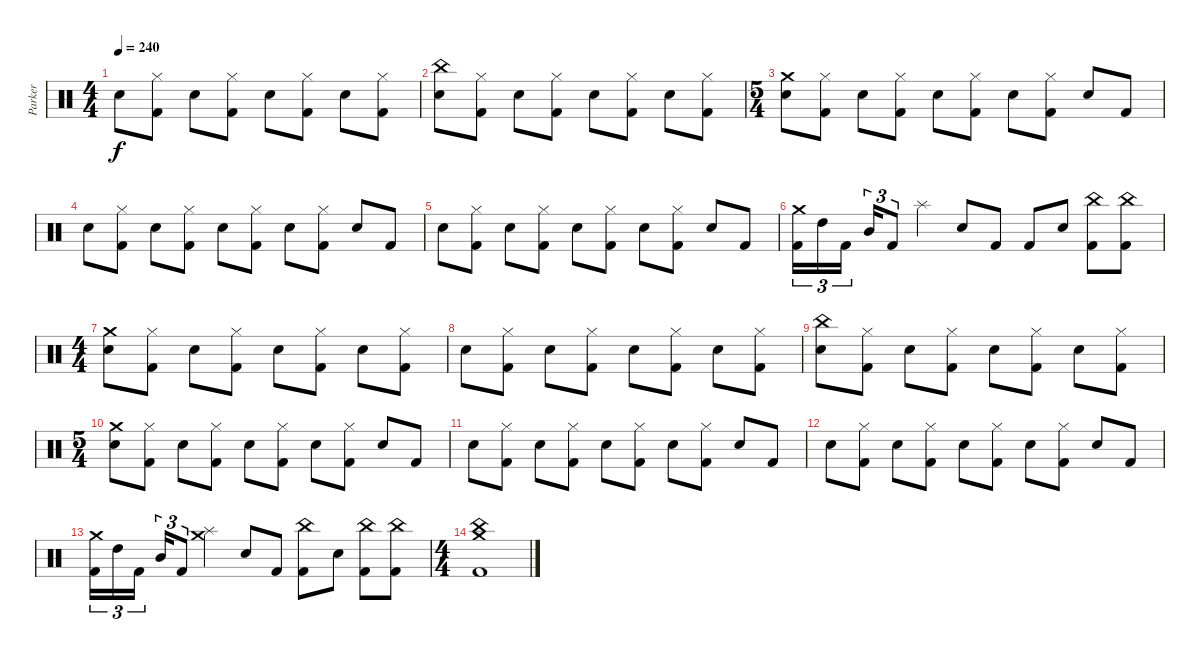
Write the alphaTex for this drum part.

\track ("Parker" "Parker") {instrument percussion}
\staff {score}
\articulation defaults
\ts (4 4)
\tempo 240
\clef neutral
\ks c "Electric Snare (hit)".8{dy f}
("Hi-Hat (closed)" "Kick (hit) 2").8 "Electric Snare (hit)".8 ("Hi-Hat (closed)" "Kick (hit) 2").8 "Electric Snare (hit)".8 ("Hi-Hat (closed)" "Kick (hit) 2").8 "Electric Snare (hit)".8 ("Hi-Hat (closed)" "Kick (hit) 2").8 |
("China (hit)" "Electric Snare (hit)").8 ("Hi-Hat (closed)" "Kick (hit) 2").8 "Electric Snare (hit)".8 ("Hi-Hat (closed)" "Kick (hit) 2").8 "Electric Snare (hit)".8 ("Hi-Hat (closed)" "Kick (hit) 2").8 "Electric Snare (hit)".8 ("Hi-Hat (closed)" "Kick (hit) 2").8 |
\ts (5 4)
("Crash medium (hit)" "Electric Snare (hit)").8 ("Hi-Hat (closed)" "Kick (hit) 2").8 "Electric Snare (hit)".8 ("Hi-Hat (closed)" "Kick (hit) 2").8 "Electric Snare (hit)".8 ("Hi-Hat (closed)" "Kick (hit) 2").8 "Electric Snare (hit)".8 ("Hi-Hat (closed)" "Kick (hit) 2").8 "Electric Snare (hit)".8 "Kick (hit) 2".8 |
"Electric Snare (hit)".8 ("Hi-Hat (closed)" "Kick (hit) 2").8 "Electric Snare (hit)".8 ("Hi-Hat (closed)" "Kick (hit) 2").8 "Electric Snare (hit)".8 ("Hi-Hat (closed)" "Kick (hit) 2").8 "Electric Snare (hit)".8 ("Hi-Hat (closed)" "Kick (hit) 2").8 "Electric Snare (hit)".8 "Kick (hit) 2".8 |
"Electric Snare (hit)".8 ("Hi-Hat (closed)" "Kick (hit) 2").8 "Electric Snare (hit)".8 ("Hi-Hat (closed)" "Kick (hit) 2").8 "Electric Snare (hit)".8 ("Hi-Hat (closed)" "Kick (hit) 2").8 "Electric Snare (hit)".8 ("Hi-Hat (closed)" "Kick (hit) 2").8 "Electric Snare (hit)".8 "Kick (hit) 2".8 |
("Crash medium (hit)" "Kick (hit) 2").16{tu (3 2)} "High Tom (hit)".16{tu (3 2)} "Kick (hit) 2".16{tu (3 2) beam splitsecondary} "Mid Tom (hit)".16{tu (3 2)} "Kick (hit) 2".8{tu (3 2)} "Splash (hit)".4 "Electric Snare (hit)".8 "Kick (hit) 2".8 "Kick (hit) 2".8 "Electric Snare (hit)".8 ("China (hit)" "Kick (hit) 2").8 ("China (hit)" "Kick (hit) 2").8 |
\ts (4 4)
("Crash medium (hit)" "Electric Snare (hit)").8 ("Hi-Hat (closed)" "Kick (hit) 2").8 "Electric Snare (hit)".8 ("Hi-Hat (closed)" "Kick (hit) 2").8 "Electric Snare (hit)".8 ("Hi-Hat (closed)" "Kick (hit) 2").8 "Electric Snare (hit)".8 ("Hi-Hat (closed)" "Kick (hit) 2").8 |
"Electric Snare (hit)".8 ("Hi-Hat (closed)" "Kick (hit) 2").8 "Electric Snare (hit)".8 ("Hi-Hat (closed)" "Kick (hit) 2").8 "Electric Snare (hit)".8 ("Hi-Hat (closed)" "Kick (hit) 2").8 "Electric Snare (hit)".8 ("Hi-Hat (closed)" "Kick (hit) 2").8 |
("China (hit)" "Electric Snare (hit)").8 ("Hi-Hat (closed)" "Kick (hit) 2").8 "Electric Snare (hit)".8 ("Hi-Hat (closed)" "Kick (hit) 2").8 "Electric Snare (hit)".8 ("Hi-Hat (closed)" "Kick (hit) 2").8 "Electric Snare (hit)".8 ("Hi-Hat (closed)" "Kick (hit) 2").8 |
\ts (5 4)
("Crash medium (hit)" "Electric Snare (hit)").8 ("Hi-Hat (closed)" "Kick (hit) 2").8 "Electric Snare (hit)".8 ("Hi-Hat (closed)" "Kick (hit) 2").8 "Electric Snare (hit)".8 ("Hi-Hat (closed)" "Kick (hit) 2").8 "Electric Snare (hit)".8 ("Hi-Hat (closed)" "Kick (hit) 2").8 "Electric Snare (hit)".8 "Kick (hit) 2".8 |
"Electric Snare (hit)".8 ("Hi-Hat (closed)" "Kick (hit) 2").8 "Electric Snare (hit)".8 ("Hi-Hat (closed)" "Kick (hit) 2").8 "Electric Snare (hit)".8 ("Hi-Hat (closed)" "Kick (hit) 2").8 "Electric Snare (hit)".8 ("Hi-Hat (closed)" "Kick (hit) 2").8 "Electric Snare (hit)".8 "Kick (hit) 2".8 |
"Electric Snare (hit)".8 ("Hi-Hat (closed)" "Kick (hit) 2").8 "Electric Snare (hit)".8 ("Hi-Hat (closed)" "Kick (hit) 2").8 "Electric Snare (hit)".8 ("Hi-Hat (closed)" "Kick (hit) 2").8 "Electric Snare (hit)".8 ("Hi-Hat (closed)" "Kick (hit) 2").8 "Electric Snare (hit)".8 "Kick (hit) 2".8 |
("Crash medium (hit)" "Kick (hit) 2").16{tu (3 2)} "High Tom (hit)".16{tu (3 2)} "Kick (hit) 2".16{tu (3 2) beam splitsecondary} "Mid Tom (hit)".16{tu (3 2)} "Kick (hit) 2".8{tu (3 2)} ("Crash medium (hit)" "Splash (hit)").4 "Electric Snare (hit)".8 "Kick (hit) 2".8 ("China (hit)" "Kick (hit) 2").8 "Electric Snare (hit)".8 ("China (hit)" "Kick (hit) 2").8 ("China (hit)" "Kick (hit) 2").8 |
\ts (4 4)
("Crash medium (hit)" "China (hit)" "Kick (hit) 2").1
